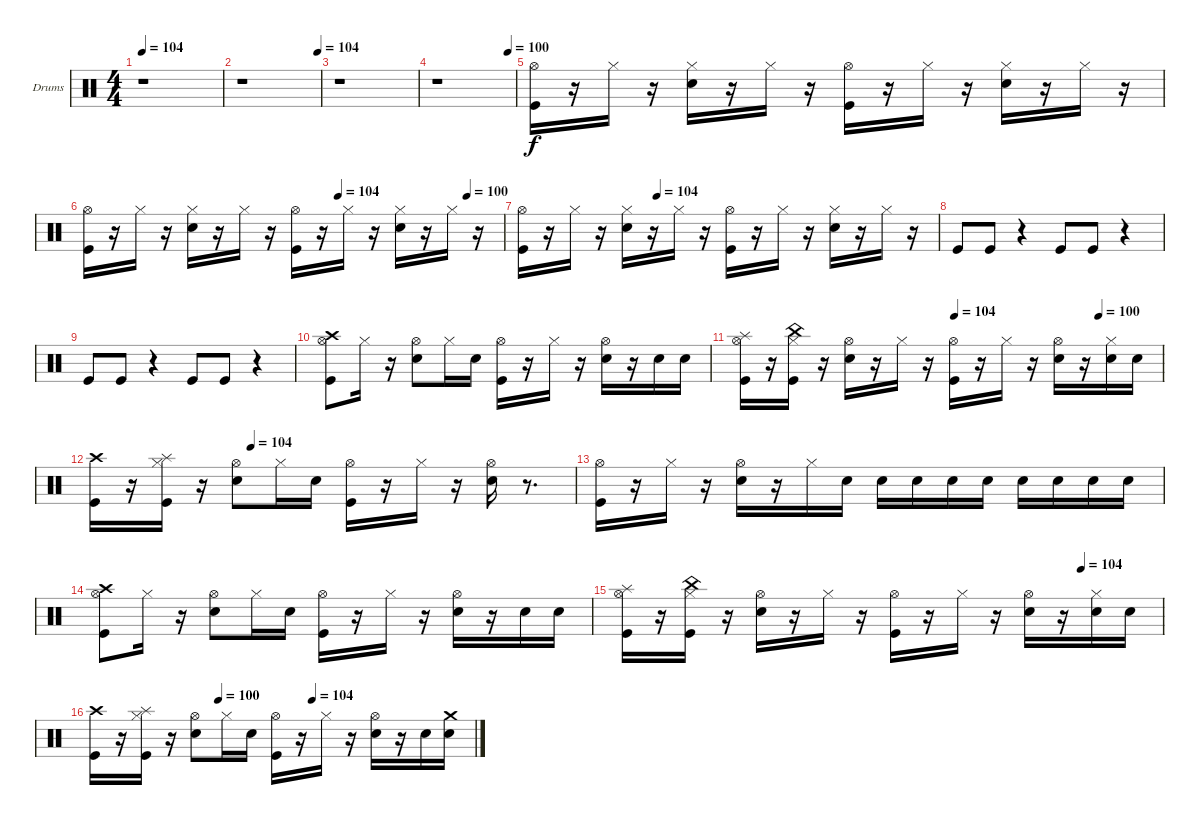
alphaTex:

\bracketExtendMode groupsimilarinstruments
\firstSystemTrackNameOrientation horizontal
\otherSystemsTrackNameOrientation horizontal
\track ("Нюта" "Drums") {instrument percussion}
\staff {score}
\articulation defaults
\ts (4 4)
\tempo 104
\clef neutral
\ks c
r.1{dy f} |
\tempo (104 0.975232)
r.1 |
r.1 |
\tempo (100 0.913313)
r.1 |
("Hi-Hat (open)" "Kick (hit)").16 r.16 "Hi-Hat (closed)".16 r.16 ("Hi-Hat (closed)" "Snare (hit) 2").16 r.16 "Hi-Hat (closed)".16 r.16 ("Hi-Hat (open)" "Kick (hit)").16 r.16 "Hi-Hat (closed)".16 r.16 ("Snare (hit) 2" "Hi-Hat (closed)").16 r.16 "Hi-Hat (closed)".16 r.16 |
\tempo (104 0.603715)
\tempo (100 0.913313)
("Hi-Hat (open)" "Kick (hit)").16 r.16 "Hi-Hat (closed)".16 r.16 ("Hi-Hat (closed)" "Snare (hit) 2").16 r.16 "Hi-Hat (closed)".16 r.16 ("Hi-Hat (open)" "Kick (hit)").16 r.16 "Hi-Hat (closed)".16 r.16 ("Snare (hit) 2" "Hi-Hat (closed)").16 r.16 "Hi-Hat (closed)".16 r.16 |
\tempo (104 0.325077)
("Hi-Hat (open)" "Kick (hit)").16 r.16 "Hi-Hat (closed)".16 r.16 ("Hi-Hat (closed)" "Snare (hit) 2").16 r.16 "Hi-Hat (closed)".16 r.16 ("Hi-Hat (open)" "Kick (hit)").16 r.16 "Hi-Hat (closed)".16 r.16 ("Snare (hit) 2" "Hi-Hat (closed)").16 r.16 "Hi-Hat (closed)".16 r.16 |
"Kick (hit)".8 "Kick (hit)".8 r.4 "Kick (hit)".8 "Kick (hit)".8 r.4 |
"Kick (hit)".8 "Kick (hit)".8 r.4 "Kick (hit)".8 "Kick (hit)".8 r.4 |
("Hi-Hat (open)" "Crash high (hit)" "Kick (hit)").8 "Hi-Hat (closed)".16 r.16 ("Hi-Hat (open)" "Snare (hit) 2").8 "Hi-Hat (closed)".16 "Snare (hit) 2".16 ("Hi-Hat (open)" "Kick (hit)").16 r.16 "Hi-Hat (closed)".16 r.16 ("Hi-Hat (open)" "Snare (hit) 2").16 r.16 "Snare (hit) 2".16 "Snare (hit) 2".16 |
\tempo (104 0.510836)
\tempo (100 0.851393)
("Splash (hit)" "Hi-Hat (open)" "Kick (hit)").16 r.16 ("Kick (hit)" "China (hit)" "Hi-Hat (closed)").16 r.16 ("Snare (hit) 2" "Hi-Hat (open)").16 r.16 "Hi-Hat (closed)".16 r.16 ("Kick (hit)" "Hi-Hat (open)").16 r.16 "Hi-Hat (closed)".16 r.16 ("Snare (hit) 2" "Hi-Hat (open)").16 r.16 ("Snare (hit) 2" "Hi-Hat (closed)").16 "Snare (hit) 2".16 |
\tempo (104 0.325077)
("Kick (hit)" "Crash high (hit)").16 r.16 ("Kick (hit)" "Splash (hit)" "Hi-Hat (closed)").16 r.16 ("Hi-Hat (open)" "Snare (hit) 2").8 "Hi-Hat (closed)".16 "Snare (hit) 2".16 ("Hi-Hat (open)" "Kick (hit)").16 r.16 "Hi-Hat (closed)".16 r.16 ("Hi-Hat (open)" "Snare (hit) 2").16 r.8{d} |
("Hi-Hat (open)" "Kick (hit)").16 r.16 "Hi-Hat (closed)".16 r.16 ("Snare (hit) 2" "Hi-Hat (open)").16 r.16 "Hi-Hat (closed)".16 "Snare (hit) 2".16 "Snare (hit) 2".16 "Snare (hit) 2".16 "Snare (hit) 2".16 "Snare (hit) 2".16 "Snare (hit) 2".16 "Snare (hit) 2".16 "Snare (hit) 2".16 "Snare (hit) 2".16 |
("Hi-Hat (open)" "Crash high (hit)" "Kick (hit)").8 "Hi-Hat (closed)".16 r.16 ("Hi-Hat (open)" "Snare (hit) 2").8 "Hi-Hat (closed)".16 "Snare (hit) 2".16 ("Hi-Hat (open)" "Kick (hit)").16 r.16 "Hi-Hat (closed)".16 r.16 ("Hi-Hat (open)" "Snare (hit) 2").16 r.16 "Snare (hit) 2".16 "Snare (hit) 2".16 |
\tempo (104 0.851393)
("Splash (hit)" "Hi-Hat (open)" "Kick (hit)").16 r.16 ("Kick (hit)" "China (hit)" "Hi-Hat (closed)").16 r.16 ("Snare (hit) 2" "Hi-Hat (open)").16 r.16 "Hi-Hat (closed)".16 r.16 ("Kick (hit)" "Hi-Hat (open)").16 r.16 "Hi-Hat (closed)".16 r.16 ("Snare (hit) 2" "Hi-Hat (open)").16 r.16 ("Snare (hit) 2" "Hi-Hat (closed)").16 "Snare (hit) 2".16 |
\tempo (100 0.325077)
\tempo (104 0.572755)
("Kick (hit)" "Crash high (hit)").16 r.16 ("Kick (hit)" "Splash (hit)" "Hi-Hat (closed)").16 r.16 ("Hi-Hat (open)" "Snare (hit) 2").8 "Hi-Hat (closed)".16 "Snare (hit) 2".16 ("Hi-Hat (open)" "Kick (hit)").16 r.16 "Hi-Hat (closed)".16 r.16 ("Hi-Hat (open)" "Snare (hit) 2").16 r.16 "Snare (hit) 2".16 ("Crash medium (hit)" "Snare (hit) 2").16
